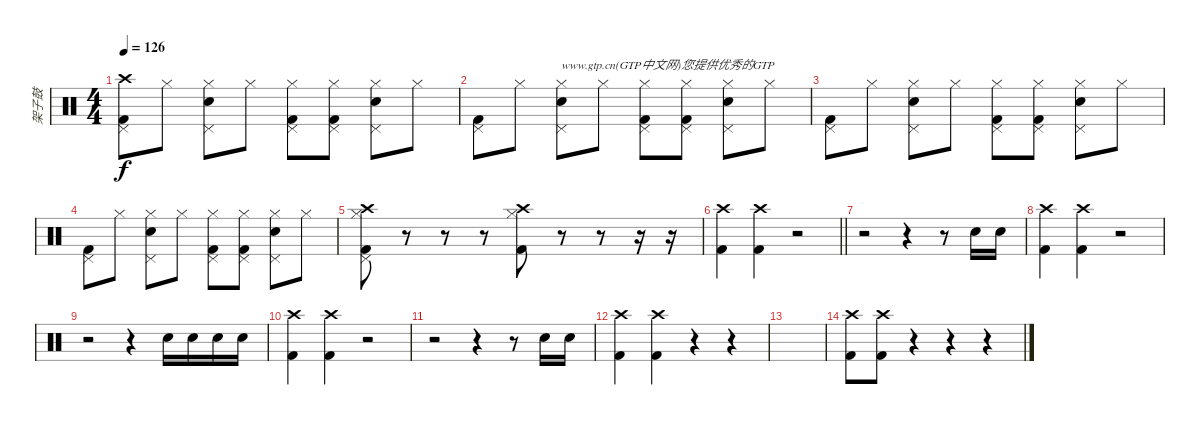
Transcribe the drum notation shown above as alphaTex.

\track ("架子鼓" "架子鼓") {instrument percussion}
\staff {score}
\articulation defaults
\ts (4 4)
\tempo 126
\clef neutral
\ks c
("Crash high (hit)" "Pedal Hi-Hat (hit)" "Kick (hit) 2").8{dy f} "Hi-Hat (closed)".8 ("Pedal Hi-Hat (hit)" "Hi-Hat (closed)" "Snare (hit) 2").8 "Hi-Hat (closed)".8 ("Pedal Hi-Hat (hit)" "Hi-Hat (closed)" "Kick (hit) 2").8 ("Pedal Hi-Hat (hit)" "Hi-Hat (closed)" "Kick (hit) 2").8 ("Pedal Hi-Hat (hit)" "Hi-Hat (closed)" "Snare (hit) 2").8 "Hi-Hat (closed)".8 |
("Pedal Hi-Hat (hit)" "Kick (hit) 2").8 "Hi-Hat (closed)".8 ("Pedal Hi-Hat (hit)" "Hi-Hat (closed)" "Snare (hit) 2").8{txt "www.gtp.cn(GTP中文网)您提供优秀的GTP"} "Hi-Hat (closed)".8 ("Pedal Hi-Hat (hit)" "Hi-Hat (closed)" "Kick (hit) 2").8 ("Pedal Hi-Hat (hit)" "Hi-Hat (closed)" "Kick (hit) 2").8 ("Pedal Hi-Hat (hit)" "Hi-Hat (closed)" "Snare (hit) 2").8 "Hi-Hat (closed)".8 |
("Pedal Hi-Hat (hit)" "Kick (hit) 2").8 "Hi-Hat (closed)".8 ("Pedal Hi-Hat (hit)" "Hi-Hat (closed)" "Snare (hit) 2").8 "Hi-Hat (closed)".8 ("Pedal Hi-Hat (hit)" "Hi-Hat (closed)" "Kick (hit) 2").8 ("Pedal Hi-Hat (hit)" "Hi-Hat (closed)" "Kick (hit) 2").8 ("Pedal Hi-Hat (hit)" "Hi-Hat (closed)" "Snare (hit) 2").8 "Hi-Hat (closed)".8 |
("Pedal Hi-Hat (hit)" "Kick (hit) 2").8 "Hi-Hat (closed)".8 ("Pedal Hi-Hat (hit)" "Hi-Hat (closed)" "Snare (hit) 2").8 "Hi-Hat (closed)".8 ("Pedal Hi-Hat (hit)" "Hi-Hat (closed)" "Kick (hit) 2").8 ("Pedal Hi-Hat (hit)" "Hi-Hat (closed)" "Kick (hit) 2").8 ("Pedal Hi-Hat (hit)" "Hi-Hat (closed)" "Snare (hit) 2").8 "Hi-Hat (closed)".8 |
("Crash high (hit)" "Pedal Hi-Hat (hit)" "Hi-Hat (closed)" "Kick (hit) 2").8 r.8 r.8 r.8 ("Crash high (hit)" "Hi-Hat (closed)" "Kick (hit) 2").8 r.8 r.8 r.16 r.16 |
\barLineRight lightlight
("Crash high (hit)" "Kick (hit) 2").4 ("Crash high (hit)" "Kick (hit) 2").4 r.2 |
r.2 r.4 r.8 "Snare (hit) 2".16 "Snare (hit) 2".16 |
("Crash high (hit)" "Kick (hit) 2").4 ("Crash high (hit)" "Kick (hit) 2").4 r.2 |
r.2 r.4 "Snare (hit) 2".16 "Snare (hit) 2".16 "Snare (hit) 2".16 "Snare (hit) 2".16 |
("Crash high (hit)" "Kick (hit) 2").4 ("Crash high (hit)" "Kick (hit) 2").4 r.2 |
r.2 r.4 r.8 "Snare (hit) 2".16 "Snare (hit) 2".16 |
("Crash high (hit)" "Kick (hit) 2").4 ("Crash high (hit)" "Kick (hit) 2").4 r.4 r.4 |
|
("Crash high (hit)" "Kick (hit) 2").8 ("Crash high (hit)" "Kick (hit) 2").8 r.4 r.4 r.4
